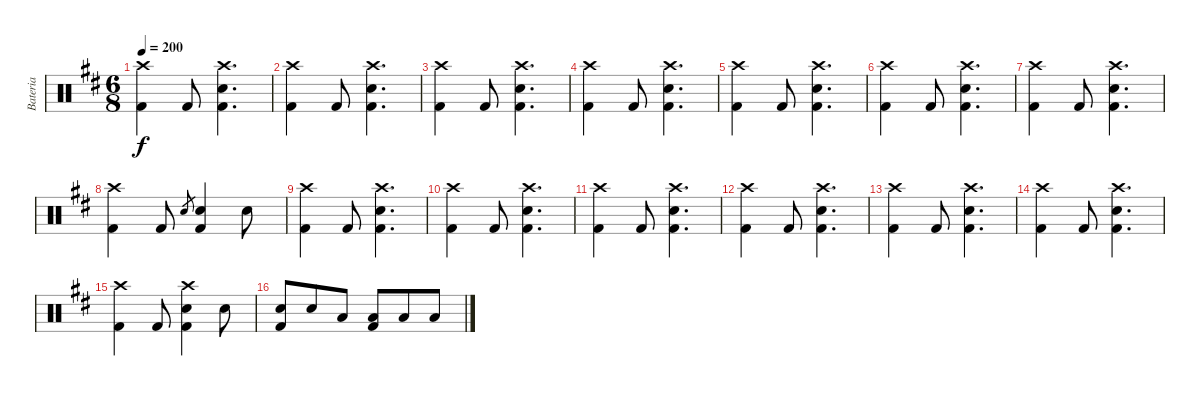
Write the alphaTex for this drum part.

\track ("Bateria" "Bateria") {instrument percussion}
\staff {score}
\articulation defaults
\ts (6 8)
\tempo 200
\clef neutral
\ks bminor
("Crash high (hit)" "Kick (hit) 2").4{dy f} "Kick (hit) 2".8 ("Crash high (hit)" "Electric Snare (hit)" "Kick (hit) 2").4{d} |
("Crash high (hit)" "Kick (hit) 2").4 "Kick (hit) 2".8 ("Crash high (hit)" "Electric Snare (hit)" "Kick (hit) 2").4{d} |
("Crash high (hit)" "Kick (hit) 2").4 "Kick (hit) 2".8 ("Crash high (hit)" "Electric Snare (hit)" "Kick (hit) 2").4{d} |
("Crash high (hit)" "Kick (hit) 2").4 "Kick (hit) 2".8 ("Crash high (hit)" "Electric Snare (hit)" "Kick (hit) 2").4{d} |
("Crash high (hit)" "Kick (hit) 2").4 "Kick (hit) 2".8 ("Crash high (hit)" "Electric Snare (hit)" "Kick (hit) 2").4{d} |
("Crash high (hit)" "Kick (hit) 2").4 "Kick (hit) 2".8 ("Crash high (hit)" "Electric Snare (hit)" "Kick (hit) 2").4{d} |
("Crash high (hit)" "Kick (hit) 2").4 "Kick (hit) 2".8 ("Crash high (hit)" "Electric Snare (hit)" "Kick (hit) 2").4{d} |
("Crash high (hit)" "Kick (hit) 2").4 "Kick (hit) 2".8 "Electric Snare (hit)".8{gr} ("Electric Snare (hit)" "Kick (hit) 2").4 "Electric Snare (hit)".8 |
("Crash high (hit)" "Kick (hit) 2").4 "Kick (hit) 2".8 ("Crash high (hit)" "Electric Snare (hit)" "Kick (hit) 2").4{d} |
("Crash high (hit)" "Kick (hit) 2").4 "Kick (hit) 2".8 ("Crash high (hit)" "Electric Snare (hit)" "Kick (hit) 2").4{d} |
("Crash high (hit)" "Kick (hit) 2").4 "Kick (hit) 2".8 ("Crash high (hit)" "Electric Snare (hit)" "Kick (hit) 2").4{d} |
("Crash high (hit)" "Kick (hit) 2").4 "Kick (hit) 2".8 ("Crash high (hit)" "Electric Snare (hit)" "Kick (hit) 2").4{d} |
("Crash high (hit)" "Kick (hit) 2").4 "Kick (hit) 2".8 ("Crash high (hit)" "Electric Snare (hit)" "Kick (hit) 2").4{d} |
("Crash high (hit)" "Kick (hit) 2").4 "Kick (hit) 2".8 ("Crash high (hit)" "Electric Snare (hit)" "Kick (hit) 2").4{d} |
("Crash high (hit)" "Kick (hit) 2").4 "Kick (hit) 2".8 ("Crash high (hit)" "Electric Snare (hit)" "Kick (hit) 2").4 "Electric Snare (hit)".8 |
("Electric Snare (hit)" "Kick (hit) 2").8 "Electric Snare (hit)".8 "Low Tom (hit)".8 ("Low Tom (hit)" "Kick (hit) 2").8 "Low Tom (hit)".8 "Low Tom (hit)".8
